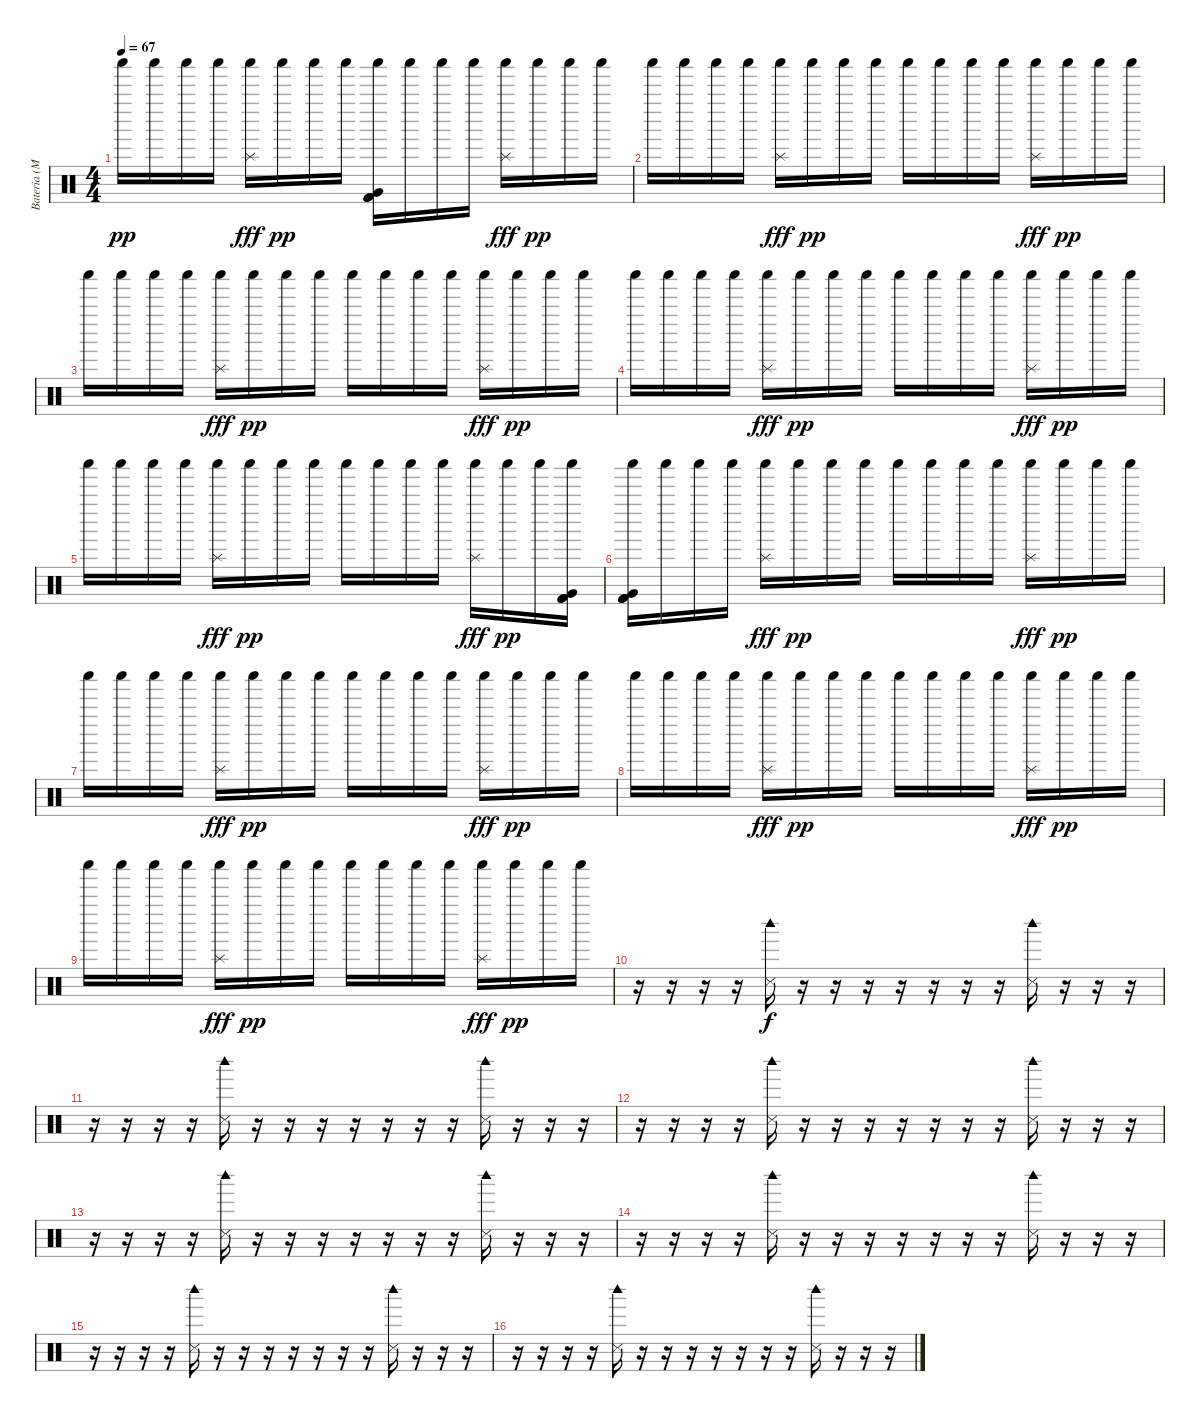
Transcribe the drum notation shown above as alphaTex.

\track ("Bateria (Matt)" "Bateria (M") {instrument percussion}
\staff {score}
\articulation defaults
\ts (4 4)
\tempo 67
\clef neutral
\ks c "Shaker (hit)".16{dy pp} "Shaker (hit)".16 "Shaker (hit)".16 "Shaker (hit)".16
("Shaker (hit)" "Splash (hit)").16{dy fff} "Shaker (hit)".16{dy pp} "Shaker (hit)".16 "Shaker (hit)".16 ("Shaker (hit)" "Very Low Tom (hit)" "Kick (hit) 2" "Kick (hit) 2").16 "Shaker (hit)".16 "Shaker (hit)".16 "Shaker (hit)".16 ("Shaker (hit)" "Splash (hit)").16{dy fff} "Shaker (hit)".16{dy pp} "Shaker (hit)".16 "Shaker (hit)".16 |
"Shaker (hit)".16 "Shaker (hit)".16 "Shaker (hit)".16 "Shaker (hit)".16 ("Shaker (hit)" "Splash (hit)").16{dy fff} "Shaker (hit)".16{dy pp} "Shaker (hit)".16 "Shaker (hit)".16 "Shaker (hit)".16 "Shaker (hit)".16 "Shaker (hit)".16 "Shaker (hit)".16 ("Shaker (hit)" "Splash (hit)").16{dy fff} "Shaker (hit)".16{dy pp} "Shaker (hit)".16 "Shaker (hit)".16 |
"Shaker (hit)".16 "Shaker (hit)".16 "Shaker (hit)".16 "Shaker (hit)".16 ("Shaker (hit)" "Splash (hit)").16{dy fff} "Shaker (hit)".16{dy pp} "Shaker (hit)".16 "Shaker (hit)".16 "Shaker (hit)".16 "Shaker (hit)".16 "Shaker (hit)".16 "Shaker (hit)".16 ("Shaker (hit)" "Splash (hit)").16{dy fff} "Shaker (hit)".16{dy pp} "Shaker (hit)".16 "Shaker (hit)".16 |
"Shaker (hit)".16 "Shaker (hit)".16 "Shaker (hit)".16 "Shaker (hit)".16 ("Shaker (hit)" "Splash (hit)").16{dy fff} "Shaker (hit)".16{dy pp} "Shaker (hit)".16 "Shaker (hit)".16 "Shaker (hit)".16 "Shaker (hit)".16 "Shaker (hit)".16 "Shaker (hit)".16 ("Shaker (hit)" "Splash (hit)").16{dy fff} "Shaker (hit)".16{dy pp} "Shaker (hit)".16 "Shaker (hit)".16 |
"Shaker (hit)".16 "Shaker (hit)".16 "Shaker (hit)".16 "Shaker (hit)".16 ("Shaker (hit)" "Splash (hit)").16{dy fff} "Shaker (hit)".16{dy pp} "Shaker (hit)".16 "Shaker (hit)".16 "Shaker (hit)".16 "Shaker (hit)".16 "Shaker (hit)".16 "Shaker (hit)".16 ("Shaker (hit)" "Splash (hit)").16{dy fff} "Shaker (hit)".16{dy pp} "Shaker (hit)".16 ("Shaker (hit)" "Very Low Tom (hit)" "Kick (hit) 2" "Kick (hit) 2").16 |
("Shaker (hit)" "Very Low Tom (hit)" "Kick (hit) 2" "Kick (hit) 2").16 "Shaker (hit)".16 "Shaker (hit)".16 "Shaker (hit)".16 ("Shaker (hit)" "Splash (hit)").16{dy fff} "Shaker (hit)".16{dy pp} "Shaker (hit)".16 "Shaker (hit)".16 "Shaker (hit)".16 "Shaker (hit)".16 "Shaker (hit)".16 "Shaker (hit)".16 ("Shaker (hit)" "Splash (hit)").16{dy fff} "Shaker (hit)".16{dy pp} "Shaker (hit)".16 "Shaker (hit)".16 |
"Shaker (hit)".16 "Shaker (hit)".16 "Shaker (hit)".16 "Shaker (hit)".16 ("Shaker (hit)" "Splash (hit)").16{dy fff} "Shaker (hit)".16{dy pp} "Shaker (hit)".16 "Shaker (hit)".16 "Shaker (hit)".16 "Shaker (hit)".16 "Shaker (hit)".16 "Shaker (hit)".16 ("Shaker (hit)" "Splash (hit)").16{dy fff} "Shaker (hit)".16{dy pp} "Shaker (hit)".16 "Shaker (hit)".16 |
"Shaker (hit)".16 "Shaker (hit)".16 "Shaker (hit)".16 "Shaker (hit)".16 ("Shaker (hit)" "Splash (hit)").16{dy fff} "Shaker (hit)".16{dy pp} "Shaker (hit)".16 "Shaker (hit)".16 "Shaker (hit)".16 "Shaker (hit)".16 "Shaker (hit)".16 "Shaker (hit)".16 ("Shaker (hit)" "Splash (hit)").16{dy fff} "Shaker (hit)".16{dy pp} "Shaker (hit)".16 "Shaker (hit)".16 |
"Shaker (hit)".16 "Shaker (hit)".16 "Shaker (hit)".16 "Shaker (hit)".16 ("Shaker (hit)" "Splash (hit)").16{dy fff} "Shaker (hit)".16{dy pp} "Shaker (hit)".16 "Shaker (hit)".16 "Shaker (hit)".16 "Shaker (hit)".16 "Shaker (hit)".16 "Shaker (hit)".16 ("Shaker (hit)" "Splash (hit)").16{dy fff} "Shaker (hit)".16{dy pp} "Shaker (hit)".16 "Shaker (hit)".16 |
r.16 r.16 r.16 r.16 ("Metronome (hit)" "Woodblock high (hit)").16{dy f} r.16 r.16 r.16 r.16 r.16 r.16 r.16 ("Metronome (hit)" "Woodblock high (hit)").16 r.16 r.16 r.16 |
r.16 r.16 r.16 r.16 ("Metronome (hit)" "Woodblock high (hit)").16 r.16 r.16 r.16 r.16 r.16 r.16 r.16 ("Metronome (hit)" "Woodblock high (hit)").16 r.16 r.16 r.16 |
r.16 r.16 r.16 r.16 ("Metronome (hit)" "Woodblock high (hit)").16 r.16 r.16 r.16 r.16 r.16 r.16 r.16 ("Metronome (hit)" "Woodblock high (hit)").16 r.16 r.16 r.16 |
r.16 r.16 r.16 r.16 ("Metronome (hit)" "Woodblock high (hit)").16 r.16 r.16 r.16 r.16 r.16 r.16 r.16 ("Metronome (hit)" "Woodblock high (hit)").16 r.16 r.16 r.16 |
r.16 r.16 r.16 r.16 ("Metronome (hit)" "Woodblock high (hit)").16 r.16 r.16 r.16 r.16 r.16 r.16 r.16 ("Metronome (hit)" "Woodblock high (hit)").16 r.16 r.16 r.16 |
r.16 r.16 r.16 r.16 ("Metronome (hit)" "Woodblock high (hit)").16 r.16 r.16 r.16 r.16 r.16 r.16 r.16 ("Metronome (hit)" "Woodblock high (hit)").16 r.16 r.16 r.16 |
r.16 r.16 r.16 r.16 ("Metronome (hit)" "Woodblock high (hit)").16 r.16 r.16 r.16 r.16 r.16 r.16 r.16 ("Metronome (hit)" "Woodblock high (hit)").16 r.16 r.16 r.16
